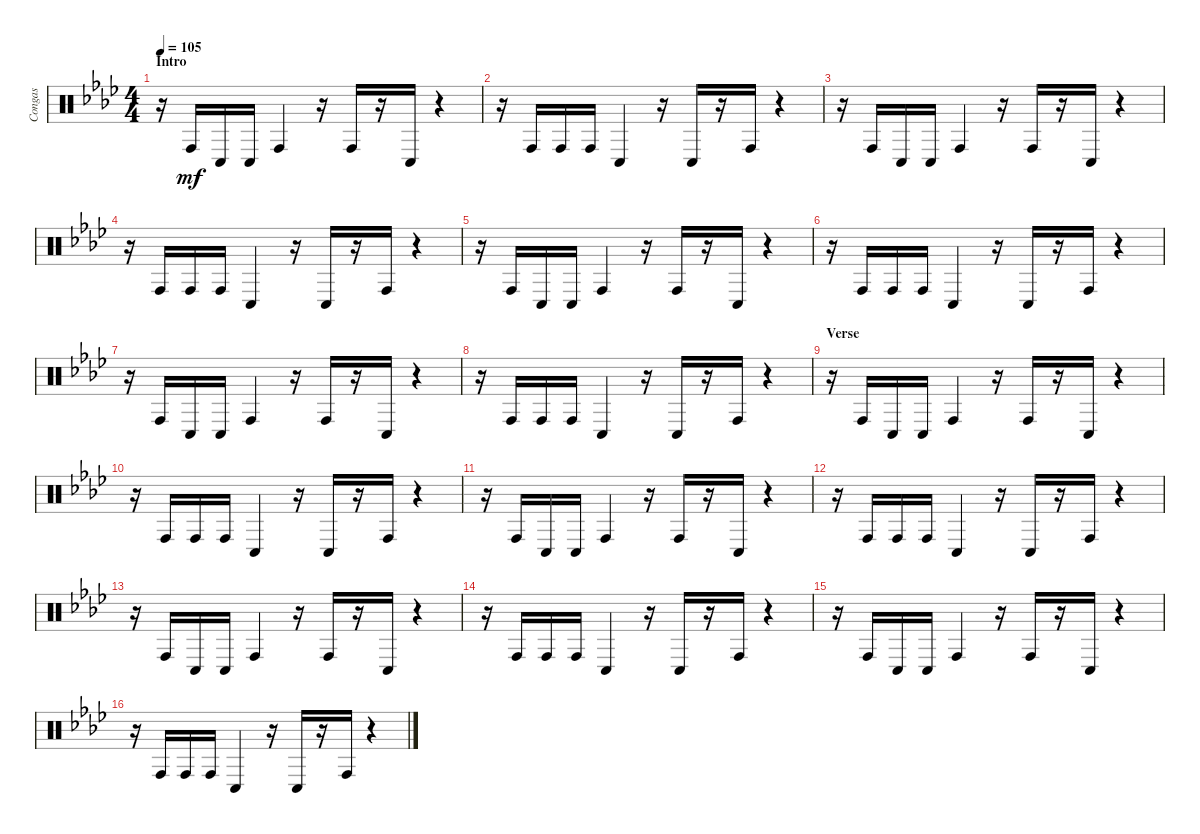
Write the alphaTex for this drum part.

\track ("Congas" "Congas") {instrument percussion}
\staff {score}
\articulation defaults
\ts (4 4)
\section ("" "Intro")
\tempo 105
\clef neutral
\ks ab
r.16{dy mf} "Conga high (hit)".16 "Conga low (hit)".16 "Conga low (hit)".16 "Conga high (hit)".4 r.16 "Conga high (hit)".16 r.16 "Conga low (hit)".16 r.4 |
r.16 "Conga high (hit)".16 "Conga high (hit)".16 "Conga high (hit)".16 "Conga low (hit)".4 r.16 "Conga low (hit)".16 r.16 "Conga high (hit)".16 r.4 |
r.16 "Conga high (hit)".16 "Conga low (hit)".16 "Conga low (hit)".16 "Conga high (hit)".4 r.16 "Conga high (hit)".16 r.16 "Conga low (hit)".16 r.4 |
r.16 "Conga high (hit)".16 "Conga high (hit)".16 "Conga high (hit)".16 "Conga low (hit)".4 r.16 "Conga low (hit)".16 r.16 "Conga high (hit)".16 r.4 |
r.16 "Conga high (hit)".16 "Conga low (hit)".16 "Conga low (hit)".16 "Conga high (hit)".4 r.16 "Conga high (hit)".16 r.16 "Conga low (hit)".16 r.4 |
r.16 "Conga high (hit)".16 "Conga high (hit)".16 "Conga high (hit)".16 "Conga low (hit)".4 r.16 "Conga low (hit)".16 r.16 "Conga high (hit)".16 r.4 |
r.16 "Conga high (hit)".16 "Conga low (hit)".16 "Conga low (hit)".16 "Conga high (hit)".4 r.16 "Conga high (hit)".16 r.16 "Conga low (hit)".16 r.4 |
r.16 "Conga high (hit)".16 "Conga high (hit)".16 "Conga high (hit)".16 "Conga low (hit)".4 r.16 "Conga low (hit)".16 r.16 "Conga high (hit)".16 r.4 |
\section ("" "Verse")
r.16 "Conga high (hit)".16 "Conga low (hit)".16 "Conga low (hit)".16 "Conga high (hit)".4 r.16 "Conga high (hit)".16 r.16 "Conga low (hit)".16 r.4 |
r.16 "Conga high (hit)".16 "Conga high (hit)".16 "Conga high (hit)".16 "Conga low (hit)".4 r.16 "Conga low (hit)".16 r.16 "Conga high (hit)".16 r.4 |
r.16 "Conga high (hit)".16 "Conga low (hit)".16 "Conga low (hit)".16 "Conga high (hit)".4 r.16 "Conga high (hit)".16 r.16 "Conga low (hit)".16 r.4 |
r.16 "Conga high (hit)".16 "Conga high (hit)".16 "Conga high (hit)".16 "Conga low (hit)".4 r.16 "Conga low (hit)".16 r.16 "Conga high (hit)".16 r.4 |
r.16 "Conga high (hit)".16 "Conga low (hit)".16 "Conga low (hit)".16 "Conga high (hit)".4 r.16 "Conga high (hit)".16 r.16 "Conga low (hit)".16 r.4 |
r.16 "Conga high (hit)".16 "Conga high (hit)".16 "Conga high (hit)".16 "Conga low (hit)".4 r.16 "Conga low (hit)".16 r.16 "Conga high (hit)".16 r.4 |
r.16 "Conga high (hit)".16 "Conga low (hit)".16 "Conga low (hit)".16 "Conga high (hit)".4 r.16 "Conga high (hit)".16 r.16 "Conga low (hit)".16 r.4 |
r.16 "Conga high (hit)".16 "Conga high (hit)".16 "Conga high (hit)".16 "Conga low (hit)".4 r.16 "Conga low (hit)".16 r.16 "Conga high (hit)".16 r.4
